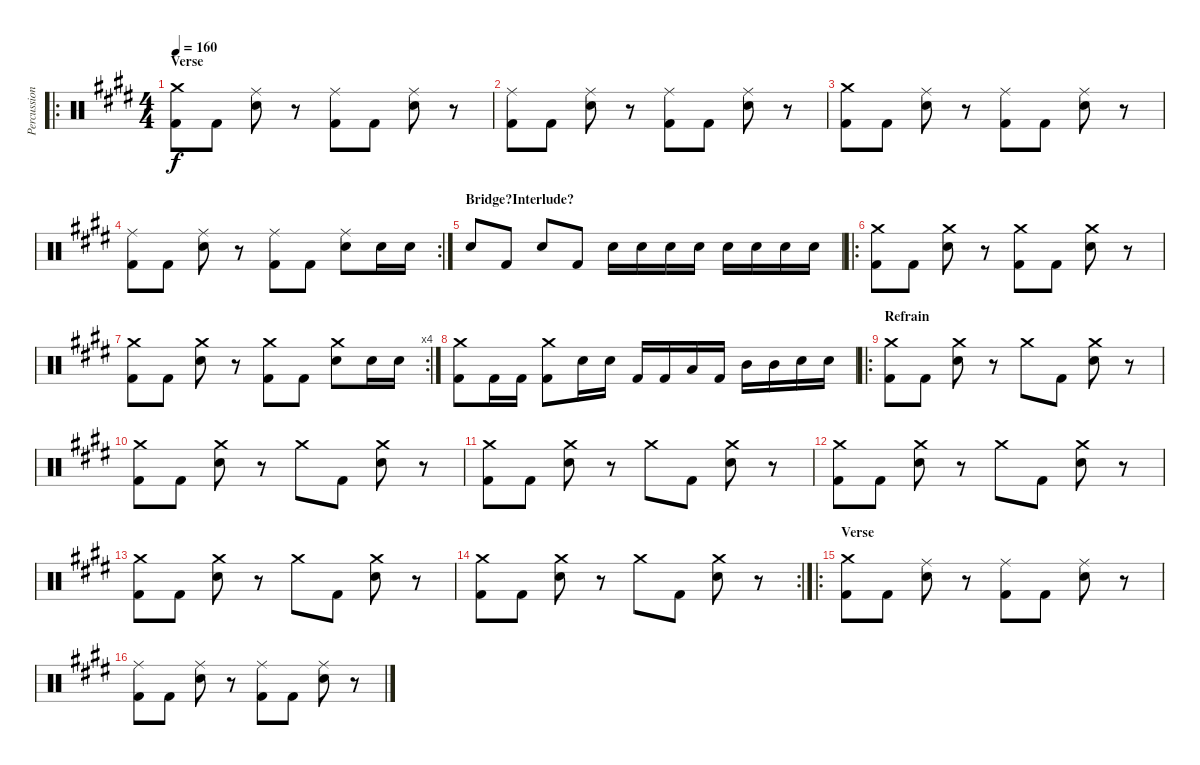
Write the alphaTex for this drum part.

\track ("Percussion" "Percussion") {instrument percussion}
\staff {score}
\articulation defaults
\ro
\ts (4 4)
\section ("" "Verse")
\tempo 160
\clef neutral
\ks e
("Crash medium (hit)" "Kick (hit) 2").8{dy f} "Kick (hit) 2".8 ("Ride (middle)" "Electric Snare (hit)").8 r.8 ("Ride (middle)" "Kick (hit) 2").8 "Kick (hit) 2".8 ("Ride (middle)" "Electric Snare (hit)").8 r.8 |
("Ride (middle)" "Kick (hit) 2").8 "Kick (hit) 2".8 ("Ride (middle)" "Electric Snare (hit)").8 r.8 ("Ride (middle)" "Kick (hit) 2").8 "Kick (hit) 2".8 ("Ride (middle)" "Electric Snare (hit)").8 r.8 |
("Crash medium (hit)" "Kick (hit) 2").8 "Kick (hit) 2".8 ("Ride (middle)" "Electric Snare (hit)").8 r.8 ("Ride (middle)" "Kick (hit) 2").8 "Kick (hit) 2".8 ("Ride (middle)" "Electric Snare (hit)").8 r.8 |
\rc 2
("Ride (middle)" "Kick (hit) 2").8 "Kick (hit) 2".8 ("Ride (middle)" "Electric Snare (hit)").8 r.8 ("Ride (middle)" "Kick (hit) 2").8 "Kick (hit) 2".8 ("Ride (middle)" "Electric Snare (hit)").8 "Electric Snare (hit)".16 "Electric Snare (hit)".16 |
\section ("" "Bridge?Interlude?")
"Electric Snare (hit)".8 "Kick (hit) 2".8 "Electric Snare (hit)".8 "Kick (hit) 2".8 "Electric Snare (hit)".16 "Electric Snare (hit)".16 "Electric Snare (hit)".16 "Electric Snare (hit)".16 "Electric Snare (hit)".16 "Electric Snare (hit)".16 "Electric Snare (hit)".16 "Electric Snare (hit)".16 |
\ro
("Crash medium (hit)" "Kick (hit) 2").8 "Kick (hit) 2".8 ("Crash medium (hit)" "Electric Snare (hit)").8 r.8 ("Crash medium (hit)" "Kick (hit) 2").8 "Kick (hit) 2".8 ("Crash medium (hit)" "Electric Snare (hit)").8 r.8 |
\rc 4
("Crash medium (hit)" "Kick (hit) 2").8 "Kick (hit) 2".8 ("Crash medium (hit)" "Electric Snare (hit)").8 r.8 ("Crash medium (hit)" "Kick (hit) 2").8 "Kick (hit) 2".8 ("Crash medium (hit)" "Electric Snare (hit)").8 "Electric Snare (hit)".16 "Electric Snare (hit)".16 |
("Crash medium (hit)" "Kick (hit) 2").8 "Kick (hit) 2".16 "Kick (hit) 2".16 ("Crash medium (hit)" "Kick (hit) 2").8 "Electric Snare (hit)".16 "Electric Snare (hit)".16 "Kick (hit) 2".16 "Kick (hit) 2".16 "Low Tom (hit)".16 "Kick (hit) 2".16 "Mid Tom (hit)".16 "Mid Tom (hit)".16 "Electric Snare (hit)".16 "Electric Snare (hit)".16 |
\ro
\section ("" "Refrain")
("Crash medium (hit)" "Kick (hit) 2").8 "Kick (hit) 2".8 ("Crash medium (hit)" "Electric Snare (hit)").8 r.8 "Crash medium (hit)".8 "Kick (hit) 2".8 ("Crash medium (hit)" "Electric Snare (hit)").8 r.8 |
("Crash medium (hit)" "Kick (hit) 2").8 "Kick (hit) 2".8 ("Crash medium (hit)" "Electric Snare (hit)").8 r.8 "Crash medium (hit)".8 "Kick (hit) 2".8 ("Crash medium (hit)" "Electric Snare (hit)").8 r.8 |
("Crash medium (hit)" "Kick (hit) 2").8 "Kick (hit) 2".8 ("Crash medium (hit)" "Electric Snare (hit)").8 r.8 "Crash medium (hit)".8 "Kick (hit) 2".8 ("Crash medium (hit)" "Electric Snare (hit)").8 r.8 |
("Crash medium (hit)" "Kick (hit) 2").8 "Kick (hit) 2".8 ("Crash medium (hit)" "Electric Snare (hit)").8 r.8 "Crash medium (hit)".8 "Kick (hit) 2".8 ("Crash medium (hit)" "Electric Snare (hit)").8 r.8 |
("Crash medium (hit)" "Kick (hit) 2").8 "Kick (hit) 2".8 ("Crash medium (hit)" "Electric Snare (hit)").8 r.8 "Crash medium (hit)".8 "Kick (hit) 2".8 ("Crash medium (hit)" "Electric Snare (hit)").8 r.8 |
\rc 2
("Crash medium (hit)" "Kick (hit) 2").8 "Kick (hit) 2".8 ("Crash medium (hit)" "Electric Snare (hit)").8 r.8 "Crash medium (hit)".8 "Kick (hit) 2".8 ("Crash medium (hit)" "Electric Snare (hit)").8 r.8 |
\ro
\section ("" "Verse")
("Crash medium (hit)" "Kick (hit) 2").8 "Kick (hit) 2".8 ("Ride (middle)" "Electric Snare (hit)").8 r.8 ("Ride (middle)" "Kick (hit) 2").8 "Kick (hit) 2".8 ("Ride (middle)" "Electric Snare (hit)").8 r.8 |
("Ride (middle)" "Kick (hit) 2").8 "Kick (hit) 2".8 ("Ride (middle)" "Electric Snare (hit)").8 r.8 ("Ride (middle)" "Kick (hit) 2").8 "Kick (hit) 2".8 ("Ride (middle)" "Electric Snare (hit)").8 r.8
